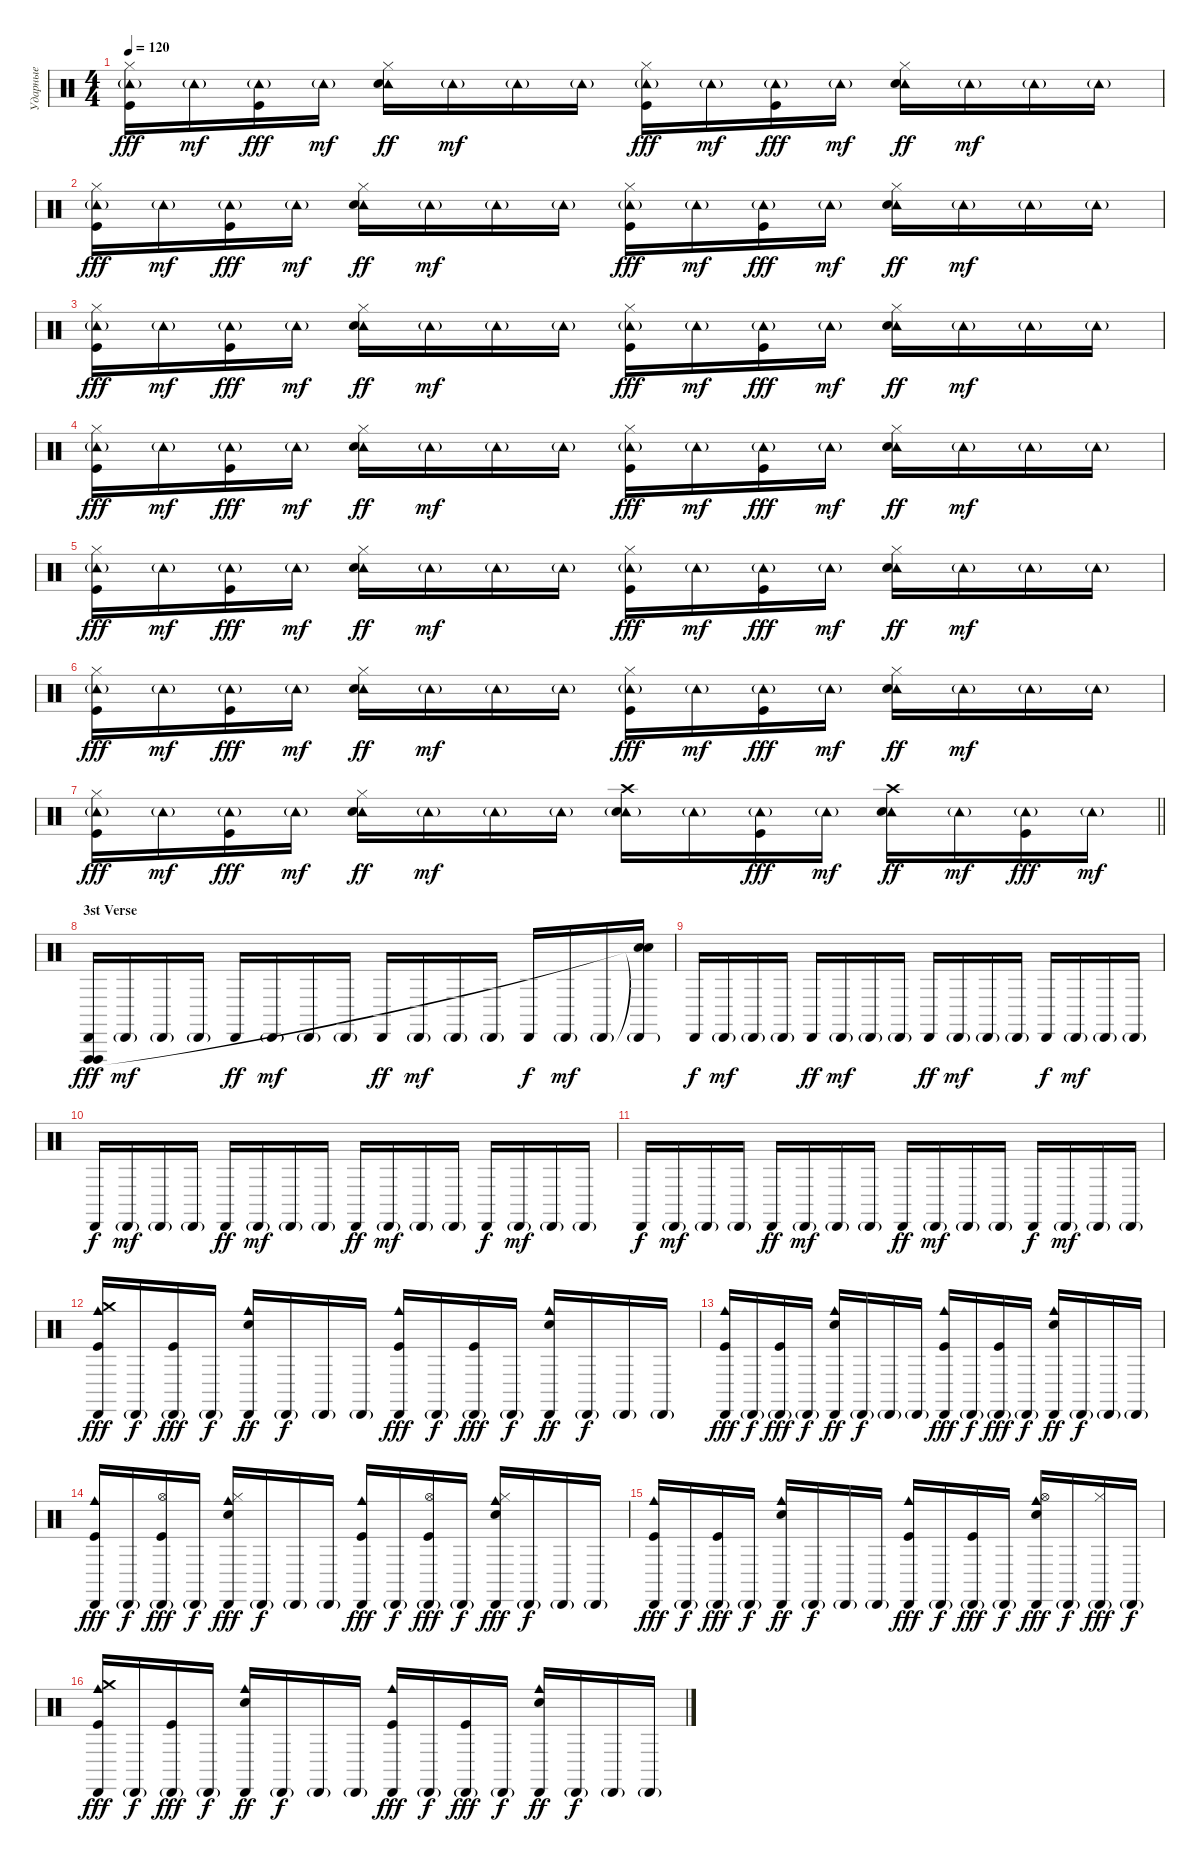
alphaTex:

\track ("Ударные" "Ударные") {instrument percussion}
\staff {score}
\articulation defaults
\ts (4 4)
\tempo 120
\clef neutral
\ks c
("Hi-Hat (closed)" "Tambourine (hit)"{g} "Kick (hit)").16{dy fff} "Tambourine (hit)"{g}.16{dy mf} ("Tambourine (hit)"{g} "Kick (hit)").16{dy fff} "Tambourine (hit)"{g}.16{dy mf} ("Hi-Hat (closed)" "Tambourine (hit)" "Snare (hit) 2").16{dy ff} "Tambourine (hit)"{g}.16{dy mf} "Tambourine (hit)"{g}.16 "Tambourine (hit)"{g}.16 ("Hi-Hat (closed)" "Tambourine (hit)"{g} "Kick (hit)").16{dy fff} "Tambourine (hit)"{g}.16{dy mf} ("Tambourine (hit)"{g} "Kick (hit)").16{dy fff} "Tambourine (hit)"{g}.16{dy mf} ("Hi-Hat (closed)" "Tambourine (hit)" "Snare (hit) 2").16{dy ff} "Tambourine (hit)"{g}.16{dy mf} "Tambourine (hit)"{g}.16 "Tambourine (hit)"{g}.16 |
("Hi-Hat (closed)" "Tambourine (hit)"{g} "Kick (hit)").16{dy fff} "Tambourine (hit)"{g}.16{dy mf} ("Tambourine (hit)"{g} "Kick (hit)").16{dy fff} "Tambourine (hit)"{g}.16{dy mf} ("Hi-Hat (closed)" "Tambourine (hit)" "Snare (hit) 2").16{dy ff} "Tambourine (hit)"{g}.16{dy mf} "Tambourine (hit)"{g}.16 "Tambourine (hit)"{g}.16 ("Hi-Hat (closed)" "Tambourine (hit)"{g} "Kick (hit)").16{dy fff} "Tambourine (hit)"{g}.16{dy mf} ("Tambourine (hit)"{g} "Kick (hit)").16{dy fff} "Tambourine (hit)"{g}.16{dy mf} ("Hi-Hat (closed)" "Tambourine (hit)" "Snare (hit) 2").16{dy ff} "Tambourine (hit)"{g}.16{dy mf} "Tambourine (hit)"{g}.16 "Tambourine (hit)"{g}.16 |
("Hi-Hat (closed)" "Tambourine (hit)"{g} "Kick (hit)").16{dy fff} "Tambourine (hit)"{g}.16{dy mf} ("Tambourine (hit)"{g} "Kick (hit)").16{dy fff} "Tambourine (hit)"{g}.16{dy mf} ("Hi-Hat (closed)" "Tambourine (hit)" "Snare (hit) 2").16{dy ff} "Tambourine (hit)"{g}.16{dy mf} "Tambourine (hit)"{g}.16 "Tambourine (hit)"{g}.16 ("Hi-Hat (closed)" "Tambourine (hit)"{g} "Kick (hit)").16{dy fff} "Tambourine (hit)"{g}.16{dy mf} ("Tambourine (hit)"{g} "Kick (hit)").16{dy fff} "Tambourine (hit)"{g}.16{dy mf} ("Hi-Hat (closed)" "Tambourine (hit)" "Snare (hit) 2").16{dy ff} "Tambourine (hit)"{g}.16{dy mf} "Tambourine (hit)"{g}.16 "Tambourine (hit)"{g}.16 |
("Hi-Hat (closed)" "Tambourine (hit)"{g} "Kick (hit)").16{dy fff} "Tambourine (hit)"{g}.16{dy mf} ("Tambourine (hit)"{g} "Kick (hit)").16{dy fff} "Tambourine (hit)"{g}.16{dy mf} ("Hi-Hat (closed)" "Tambourine (hit)" "Snare (hit) 2").16{dy ff} "Tambourine (hit)"{g}.16{dy mf} "Tambourine (hit)"{g}.16 "Tambourine (hit)"{g}.16 ("Hi-Hat (closed)" "Tambourine (hit)"{g} "Kick (hit)").16{dy fff} "Tambourine (hit)"{g}.16{dy mf} ("Tambourine (hit)"{g} "Kick (hit)").16{dy fff} "Tambourine (hit)"{g}.16{dy mf} ("Hi-Hat (closed)" "Tambourine (hit)" "Snare (hit) 2").16{dy ff} "Tambourine (hit)"{g}.16{dy mf} "Tambourine (hit)"{g}.16 "Tambourine (hit)"{g}.16 |
("Hi-Hat (closed)" "Tambourine (hit)"{g} "Kick (hit)").16{dy fff} "Tambourine (hit)"{g}.16{dy mf} ("Tambourine (hit)"{g} "Kick (hit)").16{dy fff} "Tambourine (hit)"{g}.16{dy mf} ("Hi-Hat (closed)" "Tambourine (hit)" "Snare (hit) 2").16{dy ff} "Tambourine (hit)"{g}.16{dy mf} "Tambourine (hit)"{g}.16 "Tambourine (hit)"{g}.16 ("Hi-Hat (closed)" "Tambourine (hit)"{g} "Kick (hit)").16{dy fff} "Tambourine (hit)"{g}.16{dy mf} ("Tambourine (hit)"{g} "Kick (hit)").16{dy fff} "Tambourine (hit)"{g}.16{dy mf} ("Hi-Hat (closed)" "Tambourine (hit)" "Snare (hit) 2").16{dy ff} "Tambourine (hit)"{g}.16{dy mf} "Tambourine (hit)"{g}.16 "Tambourine (hit)"{g}.16 |
("Hi-Hat (closed)" "Tambourine (hit)"{g} "Kick (hit)").16{dy fff} "Tambourine (hit)"{g}.16{dy mf} ("Tambourine (hit)"{g} "Kick (hit)").16{dy fff} "Tambourine (hit)"{g}.16{dy mf} ("Hi-Hat (closed)" "Tambourine (hit)" "Snare (hit) 2").16{dy ff} "Tambourine (hit)"{g}.16{dy mf} "Tambourine (hit)"{g}.16 "Tambourine (hit)"{g}.16 ("Hi-Hat (closed)" "Tambourine (hit)"{g} "Kick (hit)").16{dy fff} "Tambourine (hit)"{g}.16{dy mf} ("Tambourine (hit)"{g} "Kick (hit)").16{dy fff} "Tambourine (hit)"{g}.16{dy mf} ("Hi-Hat (closed)" "Tambourine (hit)" "Snare (hit) 2").16{dy ff} "Tambourine (hit)"{g}.16{dy mf} "Tambourine (hit)"{g}.16 "Tambourine (hit)"{g}.16 |
\barLineRight lightlight
("Hi-Hat (closed)" "Tambourine (hit)"{g} "Kick (hit)").16{dy fff} "Tambourine (hit)"{g}.16{dy mf} ("Tambourine (hit)"{g} "Kick (hit)").16{dy fff} "Tambourine (hit)"{g}.16{dy mf} ("Hi-Hat (closed)" "Tambourine (hit)" "Snare (hit) 2").16{dy ff} "Tambourine (hit)"{g}.16{dy mf} "Tambourine (hit)"{g}.16 "Tambourine (hit)"{g}.16 ("Crash high (hit)" "Tambourine (hit)"{g} "Snare (hit) 2").16 "Tambourine (hit)"{g}.16 ("Tambourine (hit)"{g} "Kick (hit)").16{dy fff} "Tambourine (hit)"{g}.16{dy mf} ("Crash high (hit)" "Tambourine (hit)" "Snare (hit) 2").16{dy ff} "Tambourine (hit)"{g}.16{dy mf} ("Tambourine (hit)"{g} "Kick (hit)").16{dy fff} "Tambourine (hit)"{g}.16{dy mf} |
\section ("" "3st Verse")
("Vibraslap (hit)" "Cabasa (hit)" "Vibraslap (hit)").16{dy fff} "Cabasa (hit)"{g}.16{dy mf} "Cabasa (hit)"{g}.16 "Cabasa (hit)"{g}.16 "Cabasa (hit)".16{dy ff} "Cabasa (hit)"{g}.16{dy mf} "Cabasa (hit)"{g}.16 "Cabasa (hit)"{g}.16 "Cabasa (hit)".16{dy ff} "Cabasa (hit)"{g}.16{dy mf} "Cabasa (hit)"{g}.16 "Cabasa (hit)"{g}.16 "Cabasa (hit)".16{dy f} "Cabasa (hit)"{g}.16{dy mf} "Cabasa (hit)"{g}.16 ("Snare (hit)"{t} "Cabasa (hit)"{g} "Snare (hit)"{t}).16 |
"Cabasa (hit)".16{dy f} "Cabasa (hit)"{g}.16{dy mf} "Cabasa (hit)"{g}.16 "Cabasa (hit)"{g}.16 "Cabasa (hit)".16{dy ff} "Cabasa (hit)"{g}.16{dy mf} "Cabasa (hit)"{g}.16 "Cabasa (hit)"{g}.16 "Cabasa (hit)".16{dy ff} "Cabasa (hit)"{g}.16{dy mf} "Cabasa (hit)"{g}.16 "Cabasa (hit)"{g}.16 "Cabasa (hit)".16{dy f} "Cabasa (hit)"{g}.16{dy mf} "Cabasa (hit)"{g}.16 "Cabasa (hit)"{g}.16 |
"Cabasa (hit)".16{dy f} "Cabasa (hit)"{g}.16{dy mf} "Cabasa (hit)"{g}.16 "Cabasa (hit)"{g}.16 "Cabasa (hit)".16{dy ff} "Cabasa (hit)"{g}.16{dy mf} "Cabasa (hit)"{g}.16 "Cabasa (hit)"{g}.16 "Cabasa (hit)".16{dy ff} "Cabasa (hit)"{g}.16{dy mf} "Cabasa (hit)"{g}.16 "Cabasa (hit)"{g}.16 "Cabasa (hit)".16{dy f} "Cabasa (hit)"{g}.16{dy mf} "Cabasa (hit)"{g}.16 "Cabasa (hit)"{g}.16 |
"Cabasa (hit)".16{dy f} "Cabasa (hit)"{g}.16{dy mf} "Cabasa (hit)"{g}.16 "Cabasa (hit)"{g}.16 "Cabasa (hit)".16{dy ff} "Cabasa (hit)"{g}.16{dy mf} "Cabasa (hit)"{g}.16 "Cabasa (hit)"{g}.16 "Cabasa (hit)".16{dy ff} "Cabasa (hit)"{g}.16{dy mf} "Cabasa (hit)"{g}.16 "Cabasa (hit)"{g}.16 "Cabasa (hit)".16{dy f} "Cabasa (hit)"{g}.16{dy mf} "Cabasa (hit)"{g}.16 "Cabasa (hit)"{g}.16 |
("Cowbell medium (hit)" "Cabasa (hit)" "Crash medium (hit)" "Kick (hit)").16{dy fff} "Cabasa (hit)"{g}.16{dy f} ("Cabasa (hit)"{g} "Kick (hit)").16{dy fff} "Cabasa (hit)"{g}.16{dy f} ("Cowbell medium (hit)" "Cabasa (hit)" "Snare (hit) 2").16{dy ff} "Cabasa (hit)"{g}.16{dy f} "Cabasa (hit)"{g}.16 "Cabasa (hit)"{g}.16 ("Cowbell medium (hit)" "Cabasa (hit)" "Kick (hit)").16{dy fff} "Cabasa (hit)"{g}.16{dy f} ("Cabasa (hit)"{g} "Kick (hit)").16{dy fff} "Cabasa (hit)"{g}.16{dy f} ("Cowbell medium (hit)" "Cabasa (hit)" "Snare (hit) 2").16{dy ff} "Cabasa (hit)"{g}.16{dy f} "Cabasa (hit)"{g}.16 "Cabasa (hit)"{g}.16 |
("Cowbell medium (hit)" "Cabasa (hit)" "Kick (hit)").16{dy fff} "Cabasa (hit)"{g}.16{dy f} ("Cabasa (hit)"{g} "Kick (hit)").16{dy fff} "Cabasa (hit)"{g}.16{dy f} ("Cowbell medium (hit)" "Cabasa (hit)" "Snare (hit) 2").16{dy ff} "Cabasa (hit)"{g}.16{dy f} "Cabasa (hit)"{g}.16 "Cabasa (hit)"{g}.16 ("Cowbell medium (hit)" "Cabasa (hit)" "Kick (hit)").16{dy fff} "Cabasa (hit)"{g}.16{dy f} ("Cabasa (hit)"{g} "Kick (hit)").16{dy fff} "Cabasa (hit)"{g}.16{dy f} ("Cowbell medium (hit)" "Cabasa (hit)" "Snare (hit) 2").16{dy ff} "Cabasa (hit)"{g}.16{dy f} "Cabasa (hit)"{g}.16 "Cabasa (hit)"{g}.16 |
("Cowbell medium (hit)" "Cabasa (hit)" "Kick (hit)").16{dy fff} "Cabasa (hit)"{g}.16{dy f} ("Cabasa (hit)"{g} "Hi-Hat (open)" "Kick (hit)").16{dy fff} "Cabasa (hit)"{g}.16{dy f} ("Cowbell medium (hit)" "Cabasa (hit)" "Hi-Hat (closed)" "Snare (hit) 2").16{dy fff} "Cabasa (hit)"{g}.16{dy f} "Cabasa (hit)"{g}.16 "Cabasa (hit)"{g}.16 ("Cowbell medium (hit)" "Cabasa (hit)" "Kick (hit)").16{dy fff} "Cabasa (hit)"{g}.16{dy f} ("Cabasa (hit)"{g} "Hi-Hat (open)" "Kick (hit)").16{dy fff} "Cabasa (hit)"{g}.16{dy f} ("Cowbell medium (hit)" "Cabasa (hit)" "Hi-Hat (closed)" "Snare (hit) 2").16{dy fff} "Cabasa (hit)"{g}.16{dy f} "Cabasa (hit)"{g}.16 "Cabasa (hit)"{g}.16 |
("Cowbell medium (hit)" "Cabasa (hit)" "Kick (hit)").16{dy fff} "Cabasa (hit)"{g}.16{dy f} ("Cabasa (hit)"{g} "Kick (hit)").16{dy fff} "Cabasa (hit)"{g}.16{dy f} ("Cowbell medium (hit)" "Cabasa (hit)" "Snare (hit) 2").16{dy ff} "Cabasa (hit)"{g}.16{dy f} "Cabasa (hit)"{g}.16 "Cabasa (hit)"{g}.16 ("Cowbell medium (hit)" "Cabasa (hit)" "Kick (hit)").16{dy fff} "Cabasa (hit)"{g}.16{dy f} ("Cabasa (hit)"{g} "Kick (hit)").16{dy fff} "Cabasa (hit)"{g}.16{dy f} ("Cowbell medium (hit)" "Cabasa (hit)" "Hi-Hat (open)" "Snare (hit) 2").16{dy fff} "Cabasa (hit)"{g}.16{dy f} ("Cabasa (hit)"{g} "Hi-Hat (closed)").16{dy fff} "Cabasa (hit)"{g}.16{dy f} |
("Cowbell medium (hit)" "Cabasa (hit)" "Crash medium (hit)" "Kick (hit)").16{dy fff} "Cabasa (hit)"{g}.16{dy f} ("Cabasa (hit)"{g} "Kick (hit)").16{dy fff} "Cabasa (hit)"{g}.16{dy f} ("Cowbell medium (hit)" "Cabasa (hit)" "Snare (hit) 2").16{dy ff} "Cabasa (hit)"{g}.16{dy f} "Cabasa (hit)"{g}.16 "Cabasa (hit)"{g}.16 ("Cowbell medium (hit)" "Cabasa (hit)" "Kick (hit)").16{dy fff} "Cabasa (hit)"{g}.16{dy f} ("Cabasa (hit)"{g} "Kick (hit)").16{dy fff} "Cabasa (hit)"{g}.16{dy f} ("Cowbell medium (hit)" "Cabasa (hit)" "Snare (hit) 2").16{dy ff} "Cabasa (hit)"{g}.16{dy f} "Cabasa (hit)"{g}.16 "Cabasa (hit)"{g}.16
